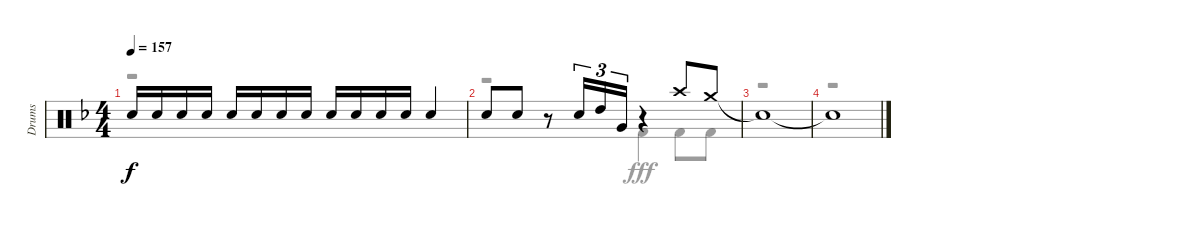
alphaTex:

\track ("Drums" "Drums") {instrument percussion}
\staff {score}
\articulation defaults
\voice
\ts (4 4)
\tempo 157
\clef neutral
\ks f "Snare (hit) 2".16{dy f} "Snare (hit) 2".16 "Snare (hit) 2".16 "Snare (hit) 2".16 "Snare (hit) 2".16 "Snare (hit) 2".16 "Snare (hit) 2".16 "Snare (hit) 2".16 "Snare (hit) 2".16 "Snare (hit) 2".16 "Snare (hit) 2".16 "Snare (hit) 2".16 "Snare (hit) 2".4
|
"Snare (hit) 2".8 "Snare (hit) 2".8 r.8 "Snare (hit) 2".16{tu (3 2)} "High Tom (hit)".16{tu (3 2)} "Very Low Tom (hit)".16{tu (3 2)} r.4 "Crash high (hit)".8 "Crash medium (hit)".8 |
"Snare (hit)"{t}.1 |
"Snare (hit)"{t}.1
\voice
\clef neutral
\ottava regular
\simile none
\ks f
r.1{dy fff} |
r.2 "Kick (hit) 2".4 "Kick (hit) 2".8 "Kick (hit) 2".8 |
r.1 |
r.1
